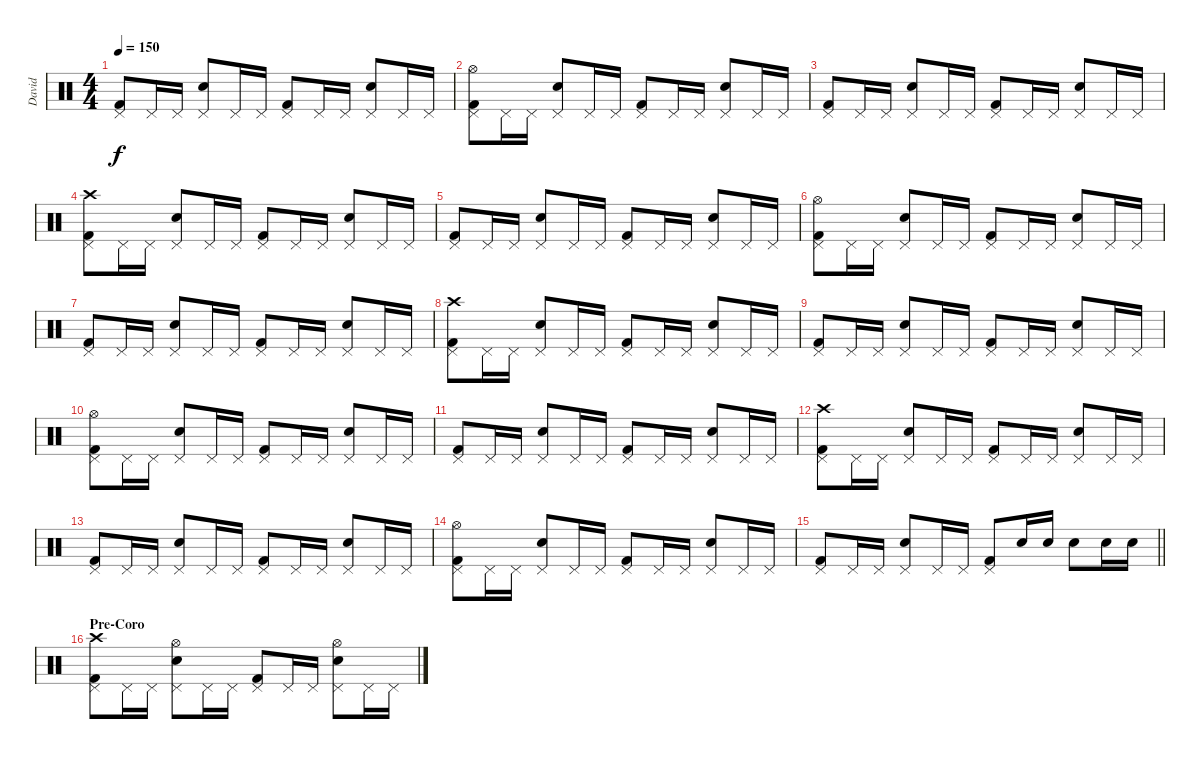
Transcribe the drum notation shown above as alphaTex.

\track ("David" "David") {instrument percussion}
\staff {score}
\articulation defaults
\ts (4 4)
\tempo 150
\clef neutral
\ks c
("Kick (hit) 2" "Pedal Hi-Hat (hit)").8{dy f} "Pedal Hi-Hat (hit)".16 "Pedal Hi-Hat (hit)".16 ("Snare (hit) 2" "Pedal Hi-Hat (hit)").8 "Pedal Hi-Hat (hit)".16 "Pedal Hi-Hat (hit)".16 ("Kick (hit) 2" "Pedal Hi-Hat (hit)").8 "Pedal Hi-Hat (hit)".16 "Pedal Hi-Hat (hit)".16 ("Snare (hit) 2" "Pedal Hi-Hat (hit)").8 "Pedal Hi-Hat (hit)".16 "Pedal Hi-Hat (hit)".16 |
("Kick (hit) 2" "Pedal Hi-Hat (hit)" "Hi-Hat (open)").8 "Pedal Hi-Hat (hit)".16 "Pedal Hi-Hat (hit)".16 ("Snare (hit) 2" "Pedal Hi-Hat (hit)").8 "Pedal Hi-Hat (hit)".16 "Pedal Hi-Hat (hit)".16 ("Kick (hit) 2" "Pedal Hi-Hat (hit)").8 "Pedal Hi-Hat (hit)".16 "Pedal Hi-Hat (hit)".16 ("Snare (hit) 2" "Pedal Hi-Hat (hit)").8 "Pedal Hi-Hat (hit)".16 "Pedal Hi-Hat (hit)".16 |
("Kick (hit) 2" "Pedal Hi-Hat (hit)").8 "Pedal Hi-Hat (hit)".16 "Pedal Hi-Hat (hit)".16 ("Snare (hit) 2" "Pedal Hi-Hat (hit)").8 "Pedal Hi-Hat (hit)".16 "Pedal Hi-Hat (hit)".16 ("Kick (hit) 2" "Pedal Hi-Hat (hit)").8 "Pedal Hi-Hat (hit)".16 "Pedal Hi-Hat (hit)".16 ("Snare (hit) 2" "Pedal Hi-Hat (hit)").8 "Pedal Hi-Hat (hit)".16 "Pedal Hi-Hat (hit)".16 |
("Kick (hit) 2" "Pedal Hi-Hat (hit)" "Crash high (hit)").8 "Pedal Hi-Hat (hit)".16 "Pedal Hi-Hat (hit)".16 ("Snare (hit) 2" "Pedal Hi-Hat (hit)").8 "Pedal Hi-Hat (hit)".16 "Pedal Hi-Hat (hit)".16 ("Kick (hit) 2" "Pedal Hi-Hat (hit)").8 "Pedal Hi-Hat (hit)".16 "Pedal Hi-Hat (hit)".16 ("Snare (hit) 2" "Pedal Hi-Hat (hit)").8 "Pedal Hi-Hat (hit)".16 "Pedal Hi-Hat (hit)".16 |
("Kick (hit) 2" "Pedal Hi-Hat (hit)").8 "Pedal Hi-Hat (hit)".16 "Pedal Hi-Hat (hit)".16 ("Snare (hit) 2" "Pedal Hi-Hat (hit)").8 "Pedal Hi-Hat (hit)".16 "Pedal Hi-Hat (hit)".16 ("Kick (hit) 2" "Pedal Hi-Hat (hit)").8 "Pedal Hi-Hat (hit)".16 "Pedal Hi-Hat (hit)".16 ("Snare (hit) 2" "Pedal Hi-Hat (hit)").8 "Pedal Hi-Hat (hit)".16 "Pedal Hi-Hat (hit)".16 |
("Kick (hit) 2" "Pedal Hi-Hat (hit)" "Hi-Hat (open)").8 "Pedal Hi-Hat (hit)".16 "Pedal Hi-Hat (hit)".16 ("Snare (hit) 2" "Pedal Hi-Hat (hit)").8 "Pedal Hi-Hat (hit)".16 "Pedal Hi-Hat (hit)".16 ("Kick (hit) 2" "Pedal Hi-Hat (hit)").8 "Pedal Hi-Hat (hit)".16 "Pedal Hi-Hat (hit)".16 ("Snare (hit) 2" "Pedal Hi-Hat (hit)").8 "Pedal Hi-Hat (hit)".16 "Pedal Hi-Hat (hit)".16 |
("Kick (hit) 2" "Pedal Hi-Hat (hit)").8 "Pedal Hi-Hat (hit)".16 "Pedal Hi-Hat (hit)".16 ("Snare (hit) 2" "Pedal Hi-Hat (hit)").8 "Pedal Hi-Hat (hit)".16 "Pedal Hi-Hat (hit)".16 ("Kick (hit) 2" "Pedal Hi-Hat (hit)").8 "Pedal Hi-Hat (hit)".16 "Pedal Hi-Hat (hit)".16 ("Snare (hit) 2" "Pedal Hi-Hat (hit)").8 "Pedal Hi-Hat (hit)".16 "Pedal Hi-Hat (hit)".16 |
("Kick (hit) 2" "Pedal Hi-Hat (hit)" "Crash high (hit)").8 "Pedal Hi-Hat (hit)".16 "Pedal Hi-Hat (hit)".16 ("Snare (hit) 2" "Pedal Hi-Hat (hit)").8 "Pedal Hi-Hat (hit)".16 "Pedal Hi-Hat (hit)".16 ("Kick (hit) 2" "Pedal Hi-Hat (hit)").8 "Pedal Hi-Hat (hit)".16 "Pedal Hi-Hat (hit)".16 ("Snare (hit) 2" "Pedal Hi-Hat (hit)").8 "Pedal Hi-Hat (hit)".16 "Pedal Hi-Hat (hit)".16 |
("Kick (hit) 2" "Pedal Hi-Hat (hit)").8 "Pedal Hi-Hat (hit)".16 "Pedal Hi-Hat (hit)".16 ("Snare (hit) 2" "Pedal Hi-Hat (hit)").8 "Pedal Hi-Hat (hit)".16 "Pedal Hi-Hat (hit)".16 ("Kick (hit) 2" "Pedal Hi-Hat (hit)").8 "Pedal Hi-Hat (hit)".16 "Pedal Hi-Hat (hit)".16 ("Snare (hit) 2" "Pedal Hi-Hat (hit)").8 "Pedal Hi-Hat (hit)".16 "Pedal Hi-Hat (hit)".16 |
("Kick (hit) 2" "Pedal Hi-Hat (hit)" "Hi-Hat (open)").8 "Pedal Hi-Hat (hit)".16 "Pedal Hi-Hat (hit)".16 ("Snare (hit) 2" "Pedal Hi-Hat (hit)").8 "Pedal Hi-Hat (hit)".16 "Pedal Hi-Hat (hit)".16 ("Kick (hit) 2" "Pedal Hi-Hat (hit)").8 "Pedal Hi-Hat (hit)".16 "Pedal Hi-Hat (hit)".16 ("Snare (hit) 2" "Pedal Hi-Hat (hit)").8 "Pedal Hi-Hat (hit)".16 "Pedal Hi-Hat (hit)".16 |
("Kick (hit) 2" "Pedal Hi-Hat (hit)").8 "Pedal Hi-Hat (hit)".16 "Pedal Hi-Hat (hit)".16 ("Snare (hit) 2" "Pedal Hi-Hat (hit)").8 "Pedal Hi-Hat (hit)".16 "Pedal Hi-Hat (hit)".16 ("Kick (hit) 2" "Pedal Hi-Hat (hit)").8 "Pedal Hi-Hat (hit)".16 "Pedal Hi-Hat (hit)".16 ("Snare (hit) 2" "Pedal Hi-Hat (hit)").8 "Pedal Hi-Hat (hit)".16 "Pedal Hi-Hat (hit)".16 |
("Kick (hit) 2" "Pedal Hi-Hat (hit)" "Crash high (hit)").8 "Pedal Hi-Hat (hit)".16 "Pedal Hi-Hat (hit)".16 ("Snare (hit) 2" "Pedal Hi-Hat (hit)").8 "Pedal Hi-Hat (hit)".16 "Pedal Hi-Hat (hit)".16 ("Kick (hit) 2" "Pedal Hi-Hat (hit)").8 "Pedal Hi-Hat (hit)".16 "Pedal Hi-Hat (hit)".16 ("Snare (hit) 2" "Pedal Hi-Hat (hit)").8 "Pedal Hi-Hat (hit)".16 "Pedal Hi-Hat (hit)".16 |
("Kick (hit) 2" "Pedal Hi-Hat (hit)").8 "Pedal Hi-Hat (hit)".16 "Pedal Hi-Hat (hit)".16 ("Snare (hit) 2" "Pedal Hi-Hat (hit)").8 "Pedal Hi-Hat (hit)".16 "Pedal Hi-Hat (hit)".16 ("Kick (hit) 2" "Pedal Hi-Hat (hit)").8 "Pedal Hi-Hat (hit)".16 "Pedal Hi-Hat (hit)".16 ("Snare (hit) 2" "Pedal Hi-Hat (hit)").8 "Pedal Hi-Hat (hit)".16 "Pedal Hi-Hat (hit)".16 |
("Kick (hit) 2" "Pedal Hi-Hat (hit)" "Hi-Hat (open)").8 "Pedal Hi-Hat (hit)".16 "Pedal Hi-Hat (hit)".16 ("Snare (hit) 2" "Pedal Hi-Hat (hit)").8 "Pedal Hi-Hat (hit)".16 "Pedal Hi-Hat (hit)".16 ("Kick (hit) 2" "Pedal Hi-Hat (hit)").8 "Pedal Hi-Hat (hit)".16 "Pedal Hi-Hat (hit)".16 ("Snare (hit) 2" "Pedal Hi-Hat (hit)").8 "Pedal Hi-Hat (hit)".16 "Pedal Hi-Hat (hit)".16 |
\barLineRight lightlight
("Kick (hit) 2" "Pedal Hi-Hat (hit)").8 "Pedal Hi-Hat (hit)".16 "Pedal Hi-Hat (hit)".16 ("Snare (hit) 2" "Pedal Hi-Hat (hit)").8 "Pedal Hi-Hat (hit)".16 "Pedal Hi-Hat (hit)".16 ("Kick (hit) 2" "Pedal Hi-Hat (hit)").8 "Snare (hit) 2".16 "Snare (hit) 2".16 "Snare (hit) 2".8 "Snare (hit) 2".16 "Snare (hit) 2".16 |
\section ("" "Pre-Coro")
("Kick (hit) 2" "Pedal Hi-Hat (hit)" "Crash high (hit)").8 "Pedal Hi-Hat (hit)".16 "Pedal Hi-Hat (hit)".16 ("Snare (hit) 2" "Pedal Hi-Hat (hit)" "Hi-Hat (open)").8 "Pedal Hi-Hat (hit)".16 "Pedal Hi-Hat (hit)".16 ("Kick (hit) 2" "Pedal Hi-Hat (hit)").8 "Pedal Hi-Hat (hit)".16 "Pedal Hi-Hat (hit)".16 ("Snare (hit) 2" "Pedal Hi-Hat (hit)" "Hi-Hat (open)").8 "Pedal Hi-Hat (hit)".16 "Pedal Hi-Hat (hit)".16
